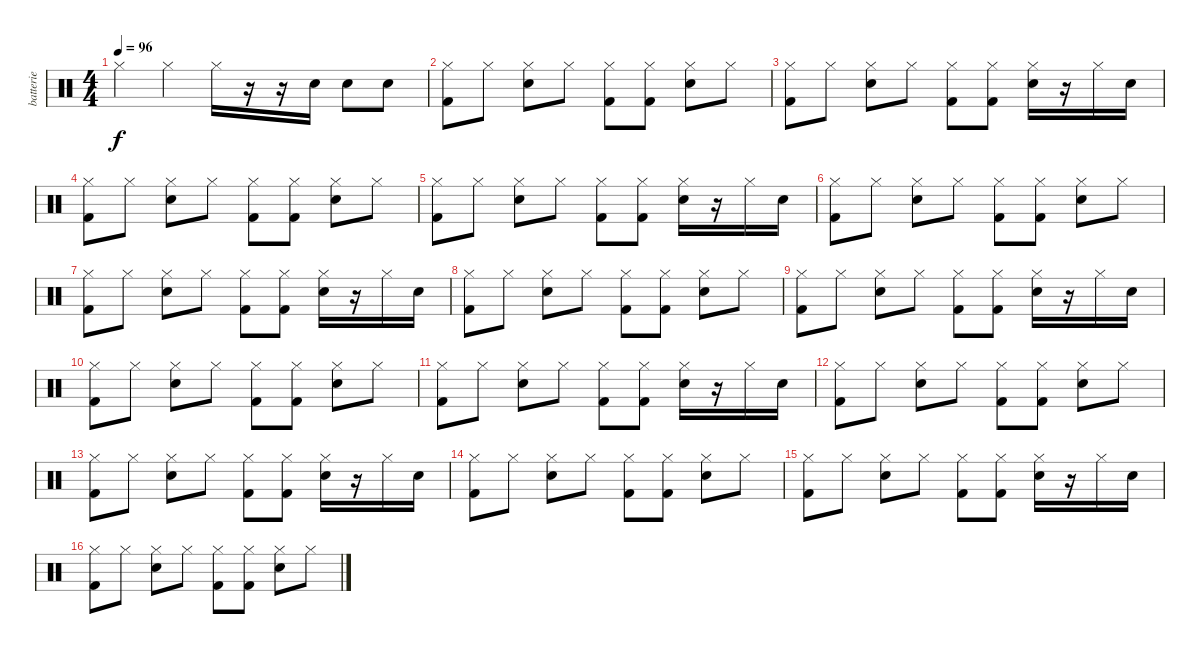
\track ("batterie" "batterie") {instrument percussion}
\staff {score}
\articulation defaults
\ts (4 4)
\tempo 96
\clef neutral
\ks c "Hi-Hat (closed)".4{dy f} "Hi-Hat (closed)".4 "Hi-Hat (closed)".16
r.16 r.16 "Electric Snare (hit)".16 "Electric Snare (hit)".8 "Electric Snare (hit)".8 |
("Hi-Hat (closed)" "Kick (hit) 2").8 "Hi-Hat (closed)".8 ("Hi-Hat (closed)" "Electric Snare (hit)").8 "Hi-Hat (closed)".8 ("Hi-Hat (closed)" "Kick (hit) 2").8 ("Hi-Hat (closed)" "Kick (hit) 2").8 ("Hi-Hat (closed)" "Electric Snare (hit)").8 "Hi-Hat (closed)".8 |
("Hi-Hat (closed)" "Kick (hit) 2").8 "Hi-Hat (closed)".8 ("Hi-Hat (closed)" "Electric Snare (hit)").8 "Hi-Hat (closed)".8 ("Hi-Hat (closed)" "Kick (hit) 2").8 ("Hi-Hat (closed)" "Kick (hit) 2").8 ("Hi-Hat (closed)" "Electric Snare (hit)").16 r.16 "Hi-Hat (closed)".16 "Electric Snare (hit)".16 |
("Hi-Hat (closed)" "Kick (hit) 2").8 "Hi-Hat (closed)".8 ("Hi-Hat (closed)" "Electric Snare (hit)").8 "Hi-Hat (closed)".8 ("Hi-Hat (closed)" "Kick (hit) 2").8 ("Hi-Hat (closed)" "Kick (hit) 2").8 ("Hi-Hat (closed)" "Electric Snare (hit)").8 "Hi-Hat (closed)".8 |
("Hi-Hat (closed)" "Kick (hit) 2").8 "Hi-Hat (closed)".8 ("Hi-Hat (closed)" "Electric Snare (hit)").8 "Hi-Hat (closed)".8 ("Hi-Hat (closed)" "Kick (hit) 2").8 ("Hi-Hat (closed)" "Kick (hit) 2").8 ("Hi-Hat (closed)" "Electric Snare (hit)").16 r.16 "Hi-Hat (closed)".16 "Electric Snare (hit)".16 |
("Hi-Hat (closed)" "Kick (hit) 2").8 "Hi-Hat (closed)".8 ("Hi-Hat (closed)" "Electric Snare (hit)").8 "Hi-Hat (closed)".8 ("Hi-Hat (closed)" "Kick (hit) 2").8 ("Hi-Hat (closed)" "Kick (hit) 2").8 ("Hi-Hat (closed)" "Electric Snare (hit)").8 "Hi-Hat (closed)".8 |
("Hi-Hat (closed)" "Kick (hit) 2").8 "Hi-Hat (closed)".8 ("Hi-Hat (closed)" "Electric Snare (hit)").8 "Hi-Hat (closed)".8 ("Hi-Hat (closed)" "Kick (hit) 2").8 ("Hi-Hat (closed)" "Kick (hit) 2").8 ("Hi-Hat (closed)" "Electric Snare (hit)").16 r.16 "Hi-Hat (closed)".16 "Electric Snare (hit)".16 |
("Hi-Hat (closed)" "Kick (hit) 2").8 "Hi-Hat (closed)".8 ("Hi-Hat (closed)" "Electric Snare (hit)").8 "Hi-Hat (closed)".8 ("Hi-Hat (closed)" "Kick (hit) 2").8 ("Hi-Hat (closed)" "Kick (hit) 2").8 ("Hi-Hat (closed)" "Electric Snare (hit)").8 "Hi-Hat (closed)".8 |
("Hi-Hat (closed)" "Kick (hit) 2").8 "Hi-Hat (closed)".8 ("Hi-Hat (closed)" "Electric Snare (hit)").8 "Hi-Hat (closed)".8 ("Hi-Hat (closed)" "Kick (hit) 2").8 ("Hi-Hat (closed)" "Kick (hit) 2").8 ("Hi-Hat (closed)" "Electric Snare (hit)").16 r.16 "Hi-Hat (closed)".16 "Electric Snare (hit)".16 |
("Hi-Hat (closed)" "Kick (hit) 2").8 "Hi-Hat (closed)".8 ("Hi-Hat (closed)" "Electric Snare (hit)").8 "Hi-Hat (closed)".8 ("Hi-Hat (closed)" "Kick (hit) 2").8 ("Hi-Hat (closed)" "Kick (hit) 2").8 ("Hi-Hat (closed)" "Electric Snare (hit)").8 "Hi-Hat (closed)".8 |
("Hi-Hat (closed)" "Kick (hit) 2").8 "Hi-Hat (closed)".8 ("Hi-Hat (closed)" "Electric Snare (hit)").8 "Hi-Hat (closed)".8 ("Hi-Hat (closed)" "Kick (hit) 2").8 ("Hi-Hat (closed)" "Kick (hit) 2").8 ("Hi-Hat (closed)" "Electric Snare (hit)").16 r.16 "Hi-Hat (closed)".16 "Electric Snare (hit)".16 |
("Hi-Hat (closed)" "Kick (hit) 2").8 "Hi-Hat (closed)".8 ("Hi-Hat (closed)" "Electric Snare (hit)").8 "Hi-Hat (closed)".8 ("Hi-Hat (closed)" "Kick (hit) 2").8 ("Hi-Hat (closed)" "Kick (hit) 2").8 ("Hi-Hat (closed)" "Electric Snare (hit)").8 "Hi-Hat (closed)".8 |
("Hi-Hat (closed)" "Kick (hit) 2").8 "Hi-Hat (closed)".8 ("Hi-Hat (closed)" "Electric Snare (hit)").8 "Hi-Hat (closed)".8 ("Hi-Hat (closed)" "Kick (hit) 2").8 ("Hi-Hat (closed)" "Kick (hit) 2").8 ("Hi-Hat (closed)" "Electric Snare (hit)").16 r.16 "Hi-Hat (closed)".16 "Electric Snare (hit)".16 |
("Hi-Hat (closed)" "Kick (hit) 2").8 "Hi-Hat (closed)".8 ("Hi-Hat (closed)" "Electric Snare (hit)").8 "Hi-Hat (closed)".8 ("Hi-Hat (closed)" "Kick (hit) 2").8 ("Hi-Hat (closed)" "Kick (hit) 2").8 ("Hi-Hat (closed)" "Electric Snare (hit)").8 "Hi-Hat (closed)".8 |
("Hi-Hat (closed)" "Kick (hit) 2").8 "Hi-Hat (closed)".8 ("Hi-Hat (closed)" "Electric Snare (hit)").8 "Hi-Hat (closed)".8 ("Hi-Hat (closed)" "Kick (hit) 2").8 ("Hi-Hat (closed)" "Kick (hit) 2").8 ("Hi-Hat (closed)" "Electric Snare (hit)").16 r.16 "Hi-Hat (closed)".16 "Electric Snare (hit)".16 |
("Hi-Hat (closed)" "Kick (hit) 2").8 "Hi-Hat (closed)".8 ("Hi-Hat (closed)" "Electric Snare (hit)").8 "Hi-Hat (closed)".8 ("Hi-Hat (closed)" "Kick (hit) 2").8 ("Hi-Hat (closed)" "Kick (hit) 2").8 ("Hi-Hat (closed)" "Electric Snare (hit)").8 "Hi-Hat (closed)".8
